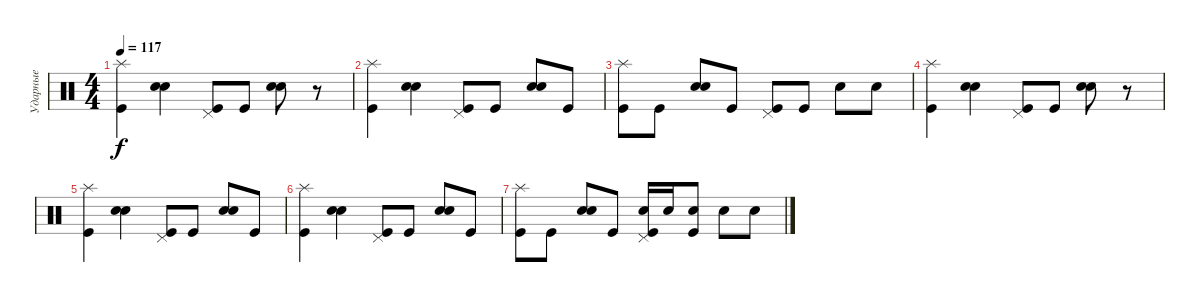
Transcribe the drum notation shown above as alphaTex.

\track ("Ударные" "Ударные") {instrument percussion}
\staff {score}
\articulation defaults
\ts (4 4)
\tempo 117
\clef neutral
\ks c
("Splash (hit)" "Kick (hit)").4{dy f} ("Electric Snare (hit)" "Snare (hit) 2").4 ("Pedal Hi-Hat (hit)" "Kick (hit)").8 "Kick (hit)".8 ("Electric Snare (hit)" "Snare (hit) 2").8 r.8 |
("Splash (hit)" "Kick (hit)").4 ("Electric Snare (hit)" "Snare (hit) 2").4 ("Pedal Hi-Hat (hit)" "Kick (hit)").8 "Kick (hit)".8 ("Electric Snare (hit)" "Snare (hit) 2").8 "Kick (hit)".8 |
("Splash (hit)" "Kick (hit)").8 "Kick (hit)".8 ("Electric Snare (hit)" "Snare (hit) 2").8 "Kick (hit)".8 ("Pedal Hi-Hat (hit)" "Kick (hit)").8 "Kick (hit)".8 "Electric Snare (hit)".8 "Electric Snare (hit)".8 |
("Splash (hit)" "Kick (hit)").4 ("Electric Snare (hit)" "Snare (hit) 2").4 ("Pedal Hi-Hat (hit)" "Kick (hit)").8 "Kick (hit)".8 ("Electric Snare (hit)" "Snare (hit) 2").8 r.8 |
("Splash (hit)" "Kick (hit)").4 ("Electric Snare (hit)" "Snare (hit) 2").4 ("Pedal Hi-Hat (hit)" "Kick (hit)").8 "Kick (hit)".8 ("Electric Snare (hit)" "Snare (hit) 2").8 "Kick (hit)".8 |
("Splash (hit)" "Kick (hit)").4 ("Electric Snare (hit)" "Snare (hit) 2").4 ("Pedal Hi-Hat (hit)" "Kick (hit)").8 "Kick (hit)".8 ("Electric Snare (hit)" "Snare (hit) 2").8 "Kick (hit)".8 |
("Splash (hit)" "Kick (hit)").8 "Kick (hit)".8 ("Electric Snare (hit)" "Snare (hit) 2").8 "Kick (hit)".8 ("Pedal Hi-Hat (hit)" "Electric Snare (hit)" "Kick (hit)").16 "Electric Snare (hit)".16 ("Electric Snare (hit)" "Kick (hit)").8 "Electric Snare (hit)".8 "Electric Snare (hit)".8
